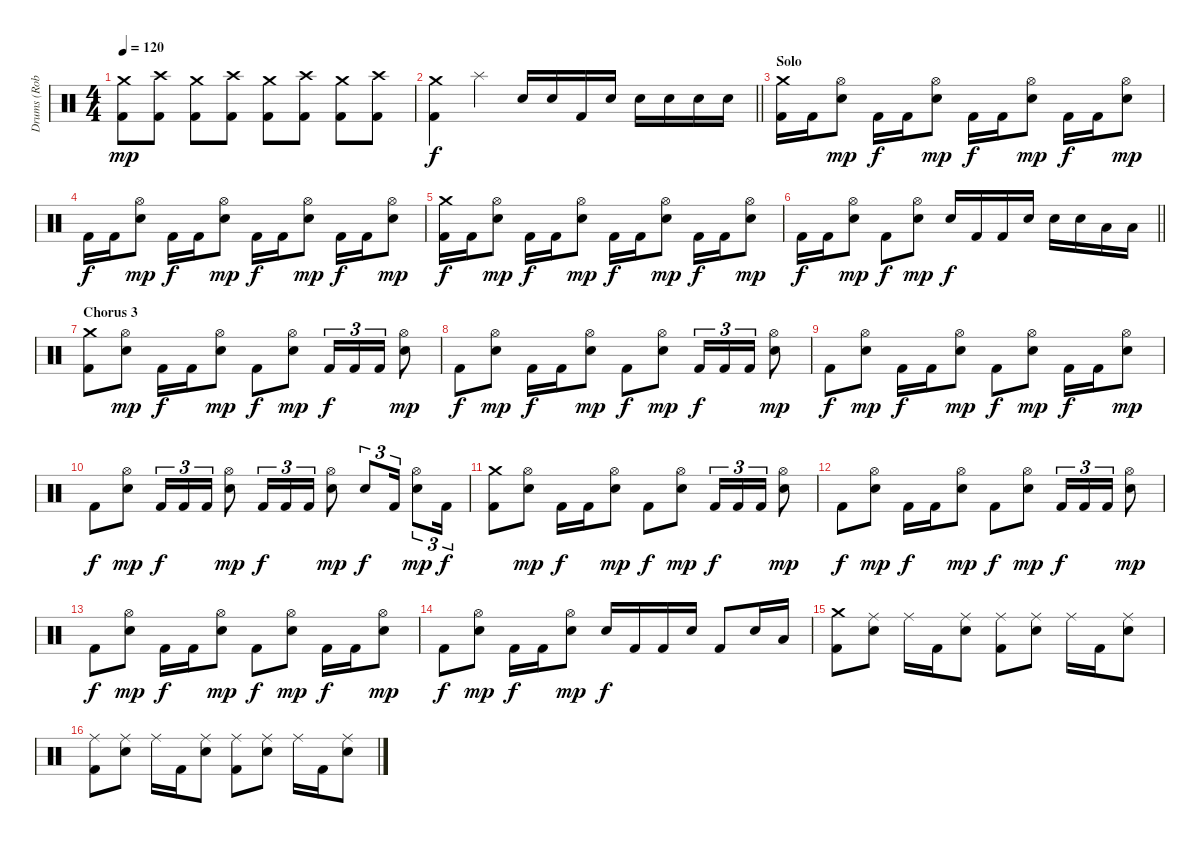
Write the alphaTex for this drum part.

\track ("Drums (Roberto Cappa)" "Drums (Rob") {instrument percussion}
\staff {score}
\articulation defaults
\ts (4 4)
\tempo 120
\clef neutral
\ks c
("Crash medium (hit)" "Kick (hit) 2").8{dy mp} ("Crash high (hit)" "Kick (hit) 2").8 ("Crash medium (hit)" "Kick (hit) 2").8 ("Crash high (hit)" "Kick (hit) 2").8 ("Crash medium (hit)" "Kick (hit) 2").8 ("Crash high (hit)" "Kick (hit) 2").8 ("Crash medium (hit)" "Kick (hit) 2").8 ("Crash high (hit)" "Kick (hit) 2").8 |
\barLineRight lightlight
("Crash medium (hit)" "Kick (hit) 2").4{dy f} "Splash (hit)".4 "Electric Snare (hit)".16 "Electric Snare (hit)".16 "Kick (hit) 2".16 "Electric Snare (hit)".16 "Electric Snare (hit)".16 "Electric Snare (hit)".16 "Electric Snare (hit)".16 "Electric Snare (hit)".16 |
\section ("" "Solo")
("Crash medium (hit)" "Kick (hit) 2").16 "Kick (hit) 2".16 ("Hi-Hat (open)" "Electric Snare (hit)").8{dy mp} "Kick (hit) 2".16{dy f} "Kick (hit) 2".16 ("Hi-Hat (open)" "Electric Snare (hit)").8{dy mp} "Kick (hit) 2".16{dy f} "Kick (hit) 2".16 ("Hi-Hat (open)" "Electric Snare (hit)").8{dy mp} "Kick (hit) 2".16{dy f} "Kick (hit) 2".16 ("Hi-Hat (open)" "Electric Snare (hit)").8{dy mp} |
"Kick (hit) 2".16{dy f} "Kick (hit) 2".16 ("Hi-Hat (open)" "Electric Snare (hit)").8{dy mp} "Kick (hit) 2".16{dy f} "Kick (hit) 2".16 ("Hi-Hat (open)" "Electric Snare (hit)").8{dy mp} "Kick (hit) 2".16{dy f} "Kick (hit) 2".16 ("Hi-Hat (open)" "Electric Snare (hit)").8{dy mp} "Kick (hit) 2".16{dy f} "Kick (hit) 2".16 ("Hi-Hat (open)" "Electric Snare (hit)").8{dy mp} |
("Crash medium (hit)" "Kick (hit) 2").16{dy f} "Kick (hit) 2".16 ("Hi-Hat (open)" "Electric Snare (hit)").8{dy mp} "Kick (hit) 2".16{dy f} "Kick (hit) 2".16 ("Hi-Hat (open)" "Electric Snare (hit)").8{dy mp} "Kick (hit) 2".16{dy f} "Kick (hit) 2".16 ("Hi-Hat (open)" "Electric Snare (hit)").8{dy mp} "Kick (hit) 2".16{dy f} "Kick (hit) 2".16 ("Hi-Hat (open)" "Electric Snare (hit)").8{dy mp} |
\barLineRight lightlight "Kick (hit) 2".16{dy f} "Kick (hit) 2".16
("Hi-Hat (open)" "Electric Snare (hit)").8{dy mp} "Kick (hit) 2".8{dy f} ("Hi-Hat (open)" "Electric Snare (hit)").8{dy mp} "Electric Snare (hit)".16{dy f} "Kick (hit) 2".16 "Kick (hit) 2".16 "Electric Snare (hit)".16 "Electric Snare (hit)".16 "Electric Snare (hit)".16 "Low Tom (hit)".16 "Low Tom (hit)".16 |
\section ("" "Chorus 3")
("Crash medium (hit)" "Kick (hit) 2").8 ("Hi-Hat (open)" "Electric Snare (hit)").8{dy mp} "Kick (hit) 2".16{dy f} "Kick (hit) 2".16 ("Hi-Hat (open)" "Electric Snare (hit)").8{dy mp} "Kick (hit) 2".8{dy f} ("Hi-Hat (open)" "Electric Snare (hit)").8{dy mp} "Kick (hit) 2".16{tu (3 2) dy f} "Kick (hit) 2".16{tu (3 2)} "Kick (hit) 2".16{tu (3 2)} ("Hi-Hat (open)" "Electric Snare (hit)").8{dy mp} |
"Kick (hit) 2".8{dy f} ("Hi-Hat (open)" "Electric Snare (hit)").8{dy mp} "Kick (hit) 2".16{dy f} "Kick (hit) 2".16 ("Hi-Hat (open)" "Electric Snare (hit)").8{dy mp} "Kick (hit) 2".8{dy f} ("Hi-Hat (open)" "Electric Snare (hit)").8{dy mp} "Kick (hit) 2".16{tu (3 2) dy f} "Kick (hit) 2".16{tu (3 2)} "Kick (hit) 2".16{tu (3 2)} ("Hi-Hat (open)" "Electric Snare (hit)").8{dy mp} |
"Kick (hit) 2".8{dy f} ("Hi-Hat (open)" "Electric Snare (hit)").8{dy mp} "Kick (hit) 2".16{dy f} "Kick (hit) 2".16 ("Hi-Hat (open)" "Electric Snare (hit)").8{dy mp} "Kick (hit) 2".8{dy f} ("Hi-Hat (open)" "Electric Snare (hit)").8{dy mp} "Kick (hit) 2".16{dy f} "Kick (hit) 2".16 ("Hi-Hat (open)" "Electric Snare (hit)").8{dy mp} |
"Kick (hit) 2".8{dy f} ("Hi-Hat (open)" "Electric Snare (hit)").8{dy mp} "Kick (hit) 2".16{tu (3 2) dy f} "Kick (hit) 2".16{tu (3 2)} "Kick (hit) 2".16{tu (3 2)} ("Hi-Hat (open)" "Electric Snare (hit)").8{dy mp} "Kick (hit) 2".16{tu (3 2) dy f} "Kick (hit) 2".16{tu (3 2)} "Kick (hit) 2".16{tu (3 2)} ("Hi-Hat (open)" "Electric Snare (hit)").8{dy mp} "Electric Snare (hit)".8{tu (3 2) dy f} "Kick (hit) 2".16{tu (3 2)} ("Hi-Hat (open)" "Electric Snare (hit)").8{tu (3 2) dy mp} "Kick (hit) 2".16{tu (3 2) dy f} |
("Crash medium (hit)" "Kick (hit) 2").8 ("Hi-Hat (open)" "Electric Snare (hit)").8{dy mp} "Kick (hit) 2".16{dy f} "Kick (hit) 2".16 ("Hi-Hat (open)" "Electric Snare (hit)").8{dy mp} "Kick (hit) 2".8{dy f} ("Hi-Hat (open)" "Electric Snare (hit)").8{dy mp} "Kick (hit) 2".16{tu (3 2) dy f} "Kick (hit) 2".16{tu (3 2)} "Kick (hit) 2".16{tu (3 2)} ("Hi-Hat (open)" "Electric Snare (hit)").8{dy mp} |
"Kick (hit) 2".8{dy f} ("Hi-Hat (open)" "Electric Snare (hit)").8{dy mp} "Kick (hit) 2".16{dy f} "Kick (hit) 2".16 ("Hi-Hat (open)" "Electric Snare (hit)").8{dy mp} "Kick (hit) 2".8{dy f} ("Hi-Hat (open)" "Electric Snare (hit)").8{dy mp} "Kick (hit) 2".16{tu (3 2) dy f} "Kick (hit) 2".16{tu (3 2)} "Kick (hit) 2".16{tu (3 2)} ("Hi-Hat (open)" "Electric Snare (hit)").8{dy mp} |
"Kick (hit) 2".8{dy f} ("Hi-Hat (open)" "Electric Snare (hit)").8{dy mp} "Kick (hit) 2".16{dy f} "Kick (hit) 2".16 ("Hi-Hat (open)" "Electric Snare (hit)").8{dy mp} "Kick (hit) 2".8{dy f} ("Hi-Hat (open)" "Electric Snare (hit)").8{dy mp} "Kick (hit) 2".16{dy f} "Kick (hit) 2".16 ("Hi-Hat (open)" "Electric Snare (hit)").8{dy mp} |
"Kick (hit) 2".8{dy f} ("Hi-Hat (open)" "Electric Snare (hit)").8{dy mp} "Kick (hit) 2".16{dy f} "Kick (hit) 2".16 ("Hi-Hat (open)" "Electric Snare (hit)").8{dy mp} "Electric Snare (hit)".16{dy f} "Kick (hit) 2".16 "Kick (hit) 2".16 "Electric Snare (hit)".16 "Kick (hit) 2".8 "Electric Snare (hit)".16 "Low Tom (hit)".16 |
("Crash medium (hit)" "Kick (hit) 2").8 ("Ride (middle)" "Electric Snare (hit)").8 "Ride (middle)".16 "Kick (hit) 2".16 ("Ride (middle)" "Electric Snare (hit)").8 ("Ride (middle)" "Kick (hit) 2").8 ("Ride (middle)" "Electric Snare (hit)").8 "Ride (middle)".16 "Kick (hit) 2".16 ("Ride (middle)" "Electric Snare (hit)").8 |
("Ride (middle)" "Kick (hit) 2").8 ("Ride (middle)" "Electric Snare (hit)").8 "Ride (middle)".16 "Kick (hit) 2".16 ("Ride (middle)" "Electric Snare (hit)").8 ("Ride (middle)" "Kick (hit) 2").8 ("Ride (middle)" "Electric Snare (hit)").8 "Ride (middle)".16 "Kick (hit) 2".16 ("Ride (middle)" "Electric Snare (hit)").8
